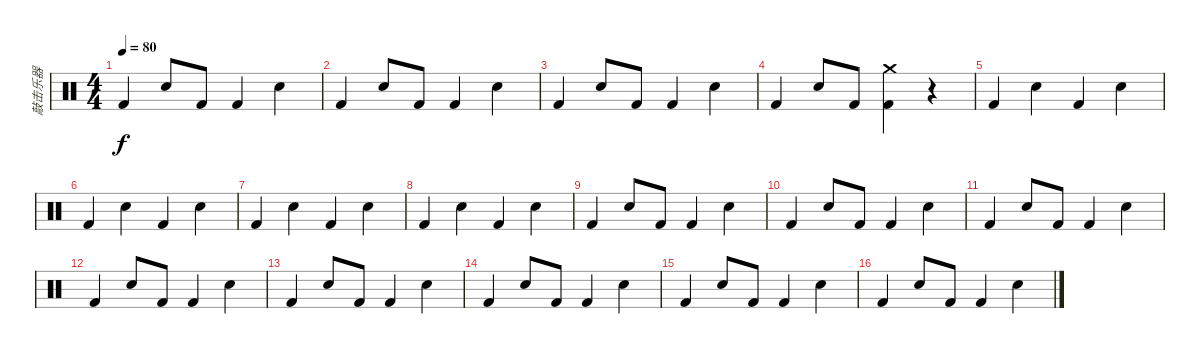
\track ("敲击乐器" "敲击乐器") {instrument percussion}
\staff {score}
\articulation defaults
\ts (4 4)
\tempo 80
\clef neutral
\ks c "Kick (hit) 2".4{dy f} "Hand Clap (hit)".8 "Kick (hit) 2".8 "Kick (hit) 2".4 "Hand Clap (hit)".4
|
"Kick (hit) 2".4 "Hand Clap (hit)".8 "Kick (hit) 2".8 "Kick (hit) 2".4 "Hand Clap (hit)".4 |
"Kick (hit) 2".4 "Hand Clap (hit)".8 "Kick (hit) 2".8 "Kick (hit) 2".4 "Hand Clap (hit)".4 |
"Kick (hit) 2".4 "Hand Clap (hit)".8 "Kick (hit) 2".8 ("Kick (hit) 2" "Crash medium (hit)").4 r.4 |
"Kick (hit) 2".4 "Hand Clap (hit)".4 "Kick (hit) 2".4 "Hand Clap (hit)".4 |
"Kick (hit) 2".4 "Hand Clap (hit)".4 "Kick (hit) 2".4 "Hand Clap (hit)".4 |
"Kick (hit) 2".4 "Hand Clap (hit)".4 "Kick (hit) 2".4 "Hand Clap (hit)".4 |
"Kick (hit) 2".4 "Hand Clap (hit)".4 "Kick (hit) 2".4 "Hand Clap (hit)".4 |
"Kick (hit) 2".4 "Hand Clap (hit)".8 "Kick (hit) 2".8 "Kick (hit) 2".4 "Hand Clap (hit)".4 |
"Kick (hit) 2".4 "Hand Clap (hit)".8 "Kick (hit) 2".8 "Kick (hit) 2".4 "Hand Clap (hit)".4 |
"Kick (hit) 2".4 "Hand Clap (hit)".8 "Kick (hit) 2".8 "Kick (hit) 2".4 "Hand Clap (hit)".4 |
"Kick (hit) 2".4 "Hand Clap (hit)".8 "Kick (hit) 2".8 "Kick (hit) 2".4 "Hand Clap (hit)".4 |
"Kick (hit) 2".4 "Hand Clap (hit)".8 "Kick (hit) 2".8 "Kick (hit) 2".4 "Hand Clap (hit)".4 |
"Kick (hit) 2".4 "Hand Clap (hit)".8 "Kick (hit) 2".8 "Kick (hit) 2".4 "Hand Clap (hit)".4 |
"Kick (hit) 2".4 "Hand Clap (hit)".8 "Kick (hit) 2".8 "Kick (hit) 2".4 "Hand Clap (hit)".4 |
"Kick (hit) 2".4 "Hand Clap (hit)".8 "Kick (hit) 2".8 "Kick (hit) 2".4 "Hand Clap (hit)".4
